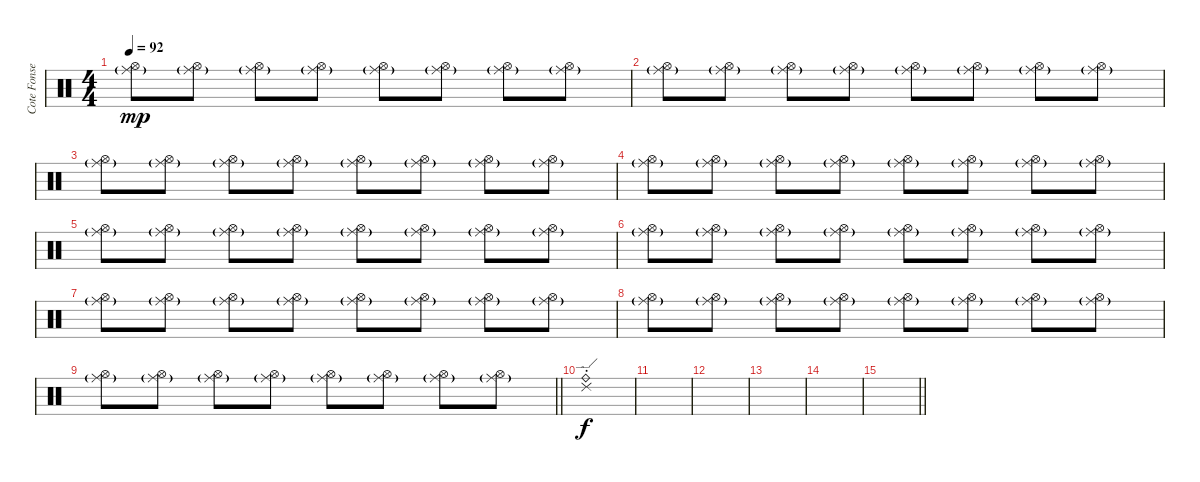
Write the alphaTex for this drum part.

\track ("Cote Fonsea" "Cote Fonse") {instrument percussion}
\staff {score}
\articulation defaults
\ts (4 4)
\tempo 92
\clef neutral
\ks c
("Ride (middle)"{g} "Hi-Hat (open)").8{dy mp} ("Ride (middle)"{g} "Hi-Hat (open)").8 ("Ride (middle)"{g} "Hi-Hat (open)").8 ("Ride (middle)"{g} "Hi-Hat (open)").8 ("Ride (middle)"{g} "Hi-Hat (open)").8 ("Ride (middle)"{g} "Hi-Hat (open)").8 ("Ride (middle)"{g} "Hi-Hat (open)").8 ("Ride (middle)"{g} "Hi-Hat (open)").8 |
("Ride (middle)"{g} "Hi-Hat (open)").8 ("Ride (middle)"{g} "Hi-Hat (open)").8 ("Ride (middle)"{g} "Hi-Hat (open)").8 ("Ride (middle)"{g} "Hi-Hat (open)").8 ("Ride (middle)"{g} "Hi-Hat (open)").8 ("Ride (middle)"{g} "Hi-Hat (open)").8 ("Ride (middle)"{g} "Hi-Hat (open)").8 ("Ride (middle)"{g} "Hi-Hat (open)").8 |
("Ride (middle)"{g} "Hi-Hat (open)").8 ("Ride (middle)"{g} "Hi-Hat (open)").8 ("Ride (middle)"{g} "Hi-Hat (open)").8 ("Ride (middle)"{g} "Hi-Hat (open)").8 ("Ride (middle)"{g} "Hi-Hat (open)").8 ("Ride (middle)"{g} "Hi-Hat (open)").8 ("Ride (middle)"{g} "Hi-Hat (open)").8 ("Ride (middle)"{g} "Hi-Hat (open)").8 |
("Ride (middle)"{g} "Hi-Hat (open)").8 ("Ride (middle)"{g} "Hi-Hat (open)").8 ("Ride (middle)"{g} "Hi-Hat (open)").8 ("Ride (middle)"{g} "Hi-Hat (open)").8 ("Ride (middle)"{g} "Hi-Hat (open)").8 ("Ride (middle)"{g} "Hi-Hat (open)").8 ("Ride (middle)"{g} "Hi-Hat (open)").8 ("Ride (middle)"{g} "Hi-Hat (open)").8 |
("Ride (middle)"{g} "Hi-Hat (open)").8 ("Ride (middle)"{g} "Hi-Hat (open)").8 ("Ride (middle)"{g} "Hi-Hat (open)").8 ("Ride (middle)"{g} "Hi-Hat (open)").8 ("Ride (middle)"{g} "Hi-Hat (open)").8 ("Ride (middle)"{g} "Hi-Hat (open)").8 ("Ride (middle)"{g} "Hi-Hat (open)").8 ("Ride (middle)"{g} "Hi-Hat (open)").8 |
("Ride (middle)"{g} "Hi-Hat (open)").8 ("Ride (middle)"{g} "Hi-Hat (open)").8 ("Ride (middle)"{g} "Hi-Hat (open)").8 ("Ride (middle)"{g} "Hi-Hat (open)").8 ("Ride (middle)"{g} "Hi-Hat (open)").8 ("Ride (middle)"{g} "Hi-Hat (open)").8 ("Ride (middle)"{g} "Hi-Hat (open)").8 ("Ride (middle)"{g} "Hi-Hat (open)").8 |
("Ride (middle)"{g} "Hi-Hat (open)").8 ("Ride (middle)"{g} "Hi-Hat (open)").8 ("Ride (middle)"{g} "Hi-Hat (open)").8 ("Ride (middle)"{g} "Hi-Hat (open)").8 ("Ride (middle)"{g} "Hi-Hat (open)").8 ("Ride (middle)"{g} "Hi-Hat (open)").8 ("Ride (middle)"{g} "Hi-Hat (open)").8 ("Ride (middle)"{g} "Hi-Hat (open)").8 |
("Ride (middle)"{g} "Hi-Hat (open)").8 ("Ride (middle)"{g} "Hi-Hat (open)").8 ("Ride (middle)"{g} "Hi-Hat (open)").8 ("Ride (middle)"{g} "Hi-Hat (open)").8 ("Ride (middle)"{g} "Hi-Hat (open)").8 ("Ride (middle)"{g} "Hi-Hat (open)").8 ("Ride (middle)"{g} "Hi-Hat (open)").8 ("Ride (middle)"{g} "Hi-Hat (open)").8 |
\barLineRight lightlight
("Ride (middle)"{g} "Hi-Hat (open)").8 ("Ride (middle)"{g} "Hi-Hat (open)").8 ("Ride (middle)"{g} "Hi-Hat (open)").8 ("Ride (middle)"{g} "Hi-Hat (open)").8 ("Ride (middle)"{g} "Hi-Hat (open)").8 ("Ride (middle)"{g} "Hi-Hat (open)").8 ("Ride (middle)"{g} "Hi-Hat (open)").8 ("Ride (middle)"{g} "Hi-Hat (open)").8 |
("Ride (edge) 2"{st} "Ride (bell)").1{dy f} |
|
|
|
|
\barLineRight lightlight
